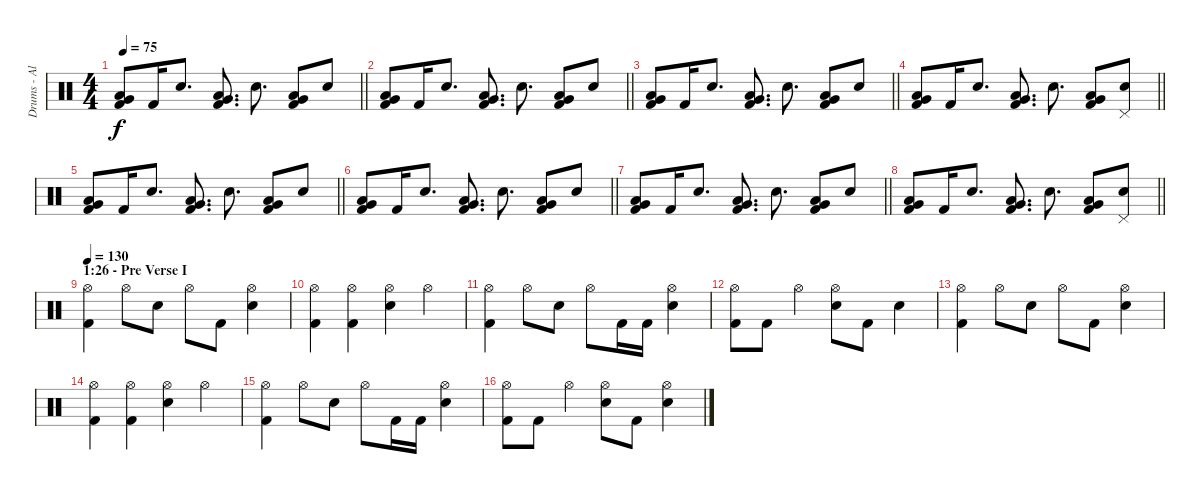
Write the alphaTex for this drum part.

\track ("Drums - Alex Wank" "Drums - Al") {instrument percussion}
\staff {score}
\articulation defaults
\ts (4 4)
\tempo 75
\clef neutral
\barLineRight lightlight
\ks c
("Low Floor Tom (hit)" "Very Low Tom (hit)" "Kick (hit) 2").8{dy f} "Kick (hit) 2".16 "Electric Snare (hit)".8{d} ("Low Floor Tom (hit)" "Very Low Tom (hit)" "Kick (hit) 2").8{d} "Electric Snare (hit)".8{d} ("Low Floor Tom (hit)" "Very Low Tom (hit)" "Kick (hit) 2").8 "Electric Snare (hit)".8 |
\barLineRight lightlight
("Low Floor Tom (hit)" "Very Low Tom (hit)" "Kick (hit) 2").8 "Kick (hit) 2".16 "Electric Snare (hit)".8{d} ("Low Floor Tom (hit)" "Very Low Tom (hit)" "Kick (hit) 2").8{d} "Electric Snare (hit)".8{d} ("Low Floor Tom (hit)" "Very Low Tom (hit)" "Kick (hit) 2").8 "Electric Snare (hit)".8 |
\barLineRight lightlight
("Low Floor Tom (hit)" "Very Low Tom (hit)" "Kick (hit) 2").8 "Kick (hit) 2".16 "Electric Snare (hit)".8{d} ("Low Floor Tom (hit)" "Very Low Tom (hit)" "Kick (hit) 2").8{d} "Electric Snare (hit)".8{d} ("Low Floor Tom (hit)" "Very Low Tom (hit)" "Kick (hit) 2").8 "Electric Snare (hit)".8 |
\barLineRight lightlight
("Low Floor Tom (hit)" "Very Low Tom (hit)" "Kick (hit) 2").8 "Kick (hit) 2".16 "Electric Snare (hit)".8{d} ("Low Floor Tom (hit)" "Very Low Tom (hit)" "Kick (hit) 2").8{d} "Electric Snare (hit)".8{d} ("Low Floor Tom (hit)" "Very Low Tom (hit)" "Kick (hit) 2").8 ("Pedal Hi-Hat (hit)" "Electric Snare (hit)").8 |
\barLineRight lightlight
("Low Floor Tom (hit)" "Very Low Tom (hit)" "Kick (hit) 2").8 "Kick (hit) 2".16 "Electric Snare (hit)".8{d} ("Low Floor Tom (hit)" "Very Low Tom (hit)" "Kick (hit) 2").8{d} "Electric Snare (hit)".8{d} ("Low Floor Tom (hit)" "Very Low Tom (hit)" "Kick (hit) 2").8 "Electric Snare (hit)".8 |
\barLineRight lightlight
("Low Floor Tom (hit)" "Very Low Tom (hit)" "Kick (hit) 2").8 "Kick (hit) 2".16 "Electric Snare (hit)".8{d} ("Low Floor Tom (hit)" "Very Low Tom (hit)" "Kick (hit) 2").8{d} "Electric Snare (hit)".8{d} ("Low Floor Tom (hit)" "Very Low Tom (hit)" "Kick (hit) 2").8 "Electric Snare (hit)".8 |
\barLineRight lightlight
("Low Floor Tom (hit)" "Very Low Tom (hit)" "Kick (hit) 2").8 "Kick (hit) 2".16 "Electric Snare (hit)".8{d} ("Low Floor Tom (hit)" "Very Low Tom (hit)" "Kick (hit) 2").8{d} "Electric Snare (hit)".8{d} ("Low Floor Tom (hit)" "Very Low Tom (hit)" "Kick (hit) 2").8 "Electric Snare (hit)".8 |
\barLineRight lightlight
("Low Floor Tom (hit)" "Very Low Tom (hit)" "Kick (hit) 2").8 "Kick (hit) 2".16 "Electric Snare (hit)".8{d} ("Low Floor Tom (hit)" "Very Low Tom (hit)" "Kick (hit) 2").8{d} "Electric Snare (hit)".8{d} ("Low Floor Tom (hit)" "Very Low Tom (hit)" "Kick (hit) 2").8 ("Pedal Hi-Hat (hit)" "Electric Snare (hit)").8 |
\section ("" "1:26 - Pre Verse I")
\tempo 130
("Hi-Hat (open)" "Kick (hit) 2").4 "Hi-Hat (open)".8 "Electric Snare (hit)".8 "Hi-Hat (open)".8 "Kick (hit) 2".8 ("Hi-Hat (open)" "Electric Snare (hit)").4 |
("Hi-Hat (open)" "Kick (hit) 2").4 ("Hi-Hat (open)" "Kick (hit) 2").4 ("Hi-Hat (open)" "Electric Snare (hit)").4 "Hi-Hat (open)".4 |
("Hi-Hat (open)" "Kick (hit) 2").4 "Hi-Hat (open)".8 "Electric Snare (hit)".8 "Hi-Hat (open)".8 "Kick (hit) 2".16 "Kick (hit) 2".16 ("Hi-Hat (open)" "Electric Snare (hit)").4 |
("Hi-Hat (open)" "Kick (hit) 2").8 "Kick (hit) 2".8 "Hi-Hat (open)".4 ("Hi-Hat (open)" "Electric Snare (hit)").8 "Kick (hit) 2".8 "Electric Snare (hit)".4 |
("Hi-Hat (open)" "Kick (hit) 2").4 "Hi-Hat (open)".8 "Electric Snare (hit)".8 "Hi-Hat (open)".8 "Kick (hit) 2".8 ("Hi-Hat (open)" "Electric Snare (hit)").4 |
("Hi-Hat (open)" "Kick (hit) 2").4 ("Hi-Hat (open)" "Kick (hit) 2").4 ("Hi-Hat (open)" "Electric Snare (hit)").4 "Hi-Hat (open)".4 |
("Hi-Hat (open)" "Kick (hit) 2").4 "Hi-Hat (open)".8 "Electric Snare (hit)".8 "Hi-Hat (open)".8 "Kick (hit) 2".16 "Kick (hit) 2".16 ("Hi-Hat (open)" "Electric Snare (hit)").4 |
("Hi-Hat (open)" "Kick (hit) 2").8 "Kick (hit) 2".8 "Hi-Hat (open)".4 ("Hi-Hat (open)" "Electric Snare (hit)").8 "Kick (hit) 2".8 ("Hi-Hat (open)" "Electric Snare (hit)").4
